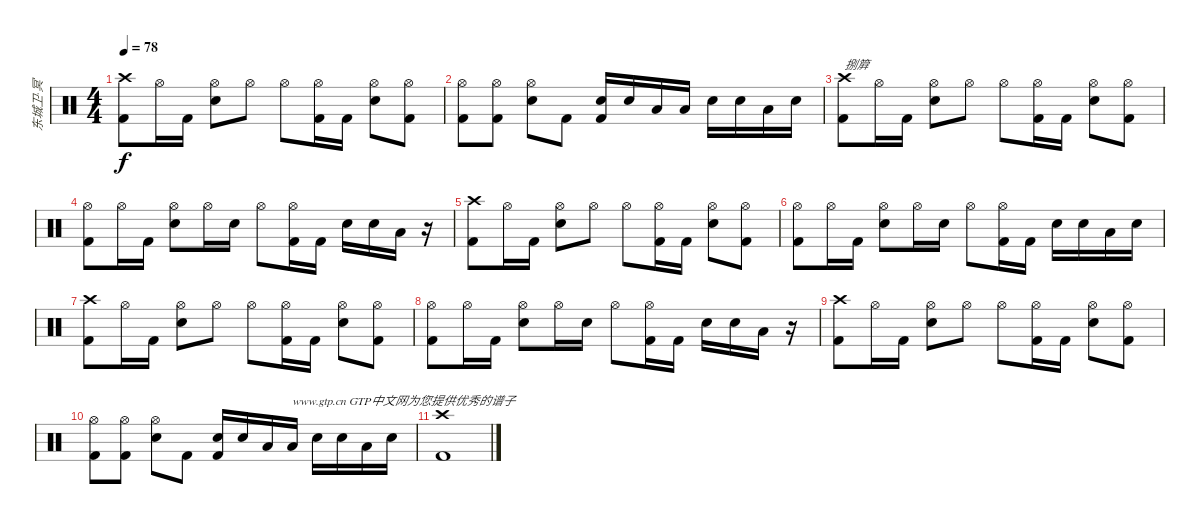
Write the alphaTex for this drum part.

\track ("东城卫·冥" "东城卫·冥") {instrument percussion}
\staff {score}
\articulation defaults
\ts (4 4)
\tempo 78
\clef neutral
\ks c
("Crash high (hit)" "Kick (hit) 2").8{dy f} "Hi-Hat (open)".16 "Kick (hit) 2".16 ("Hi-Hat (open)" "Electric Snare (hit)").8 "Hi-Hat (open)".8 "Hi-Hat (open)".8 ("Hi-Hat (open)" "Kick (hit) 2").16 "Kick (hit) 2".16 ("Hi-Hat (open)" "Electric Snare (hit)").8 ("Hi-Hat (open)" "Kick (hit) 2").8 |
("Hi-Hat (open)" "Kick (hit) 2").8 ("Hi-Hat (open)" "Kick (hit) 2").8 ("Hi-Hat (open)" "Electric Snare (hit)").8 "Kick (hit) 2".8 ("Electric Snare (hit)" "Kick (hit) 2").16 "Electric Snare (hit)".16 "Low Tom (hit)".16 "Low Tom (hit)".16 "Electric Snare (hit)".16 "Electric Snare (hit)".16 "Low Tom (hit)".16 "Electric Snare (hit)".16 |
("Crash high (hit)" "Kick (hit) 2").8{txt "捌簈"} "Hi-Hat (open)".16 "Kick (hit) 2".16 ("Hi-Hat (open)" "Electric Snare (hit)").8 "Hi-Hat (open)".8 "Hi-Hat (open)".8 ("Hi-Hat (open)" "Kick (hit) 2").16 "Kick (hit) 2".16 ("Hi-Hat (open)" "Electric Snare (hit)").8 ("Hi-Hat (open)" "Kick (hit) 2").8 |
("Hi-Hat (open)" "Kick (hit) 2").8 "Hi-Hat (open)".16 "Kick (hit) 2".16 ("Hi-Hat (open)" "Electric Snare (hit)").8 "Hi-Hat (open)".16 "Electric Snare (hit)".16 "Hi-Hat (open)".8 ("Hi-Hat (open)" "Kick (hit) 2").16 "Kick (hit) 2".16 "Electric Snare (hit)".16 "Electric Snare (hit)".16 "Low Tom (hit)".16 r.16 |
("Crash high (hit)" "Kick (hit) 2").8 "Hi-Hat (open)".16 "Kick (hit) 2".16 ("Hi-Hat (open)" "Electric Snare (hit)").8 "Hi-Hat (open)".8 "Hi-Hat (open)".8 ("Hi-Hat (open)" "Kick (hit) 2").16 "Kick (hit) 2".16 ("Hi-Hat (open)" "Electric Snare (hit)").8 ("Hi-Hat (open)" "Kick (hit) 2").8 |
("Hi-Hat (open)" "Kick (hit) 2").8 "Hi-Hat (open)".16 "Kick (hit) 2".16 ("Hi-Hat (open)" "Electric Snare (hit)").8 "Hi-Hat (open)".16 "Electric Snare (hit)".16 "Hi-Hat (open)".8 ("Hi-Hat (open)" "Kick (hit) 2").16 "Kick (hit) 2".16 "Electric Snare (hit)".16 "Electric Snare (hit)".16 "Low Tom (hit)".16 "Electric Snare (hit)".16 |
("Crash high (hit)" "Kick (hit) 2").8 "Hi-Hat (open)".16 "Kick (hit) 2".16 ("Hi-Hat (open)" "Electric Snare (hit)").8 "Hi-Hat (open)".8 "Hi-Hat (open)".8 ("Hi-Hat (open)" "Kick (hit) 2").16 "Kick (hit) 2".16 ("Hi-Hat (open)" "Electric Snare (hit)").8 ("Hi-Hat (open)" "Kick (hit) 2").8 |
("Hi-Hat (open)" "Kick (hit) 2").8 "Hi-Hat (open)".16 "Kick (hit) 2".16 ("Hi-Hat (open)" "Electric Snare (hit)").8 "Hi-Hat (open)".16 "Electric Snare (hit)".16 "Hi-Hat (open)".8 ("Hi-Hat (open)" "Kick (hit) 2").16 "Kick (hit) 2".16 "Electric Snare (hit)".16 "Electric Snare (hit)".16 "Low Tom (hit)".16 r.16 |
("Crash high (hit)" "Kick (hit) 2").8 "Hi-Hat (open)".16 "Kick (hit) 2".16 ("Hi-Hat (open)" "Electric Snare (hit)").8 "Hi-Hat (open)".8 "Hi-Hat (open)".8 ("Hi-Hat (open)" "Kick (hit) 2").16 "Kick (hit) 2".16 ("Hi-Hat (open)" "Electric Snare (hit)").8 ("Hi-Hat (open)" "Kick (hit) 2").8 |
("Hi-Hat (open)" "Kick (hit) 2").8 ("Hi-Hat (open)" "Kick (hit) 2").8 ("Hi-Hat (open)" "Electric Snare (hit)").8 "Kick (hit) 2".8 ("Electric Snare (hit)" "Kick (hit) 2").16 "Electric Snare (hit)".16 "Low Tom (hit)".16 "Low Tom (hit)".16{txt "www.gtp.cn GTP中文网为您提供优秀的谱子"} "Electric Snare (hit)".16 "Electric Snare (hit)".16 "Low Tom (hit)".16 "Electric Snare (hit)".16 |
("Crash high (hit)" "Kick (hit) 2").1
